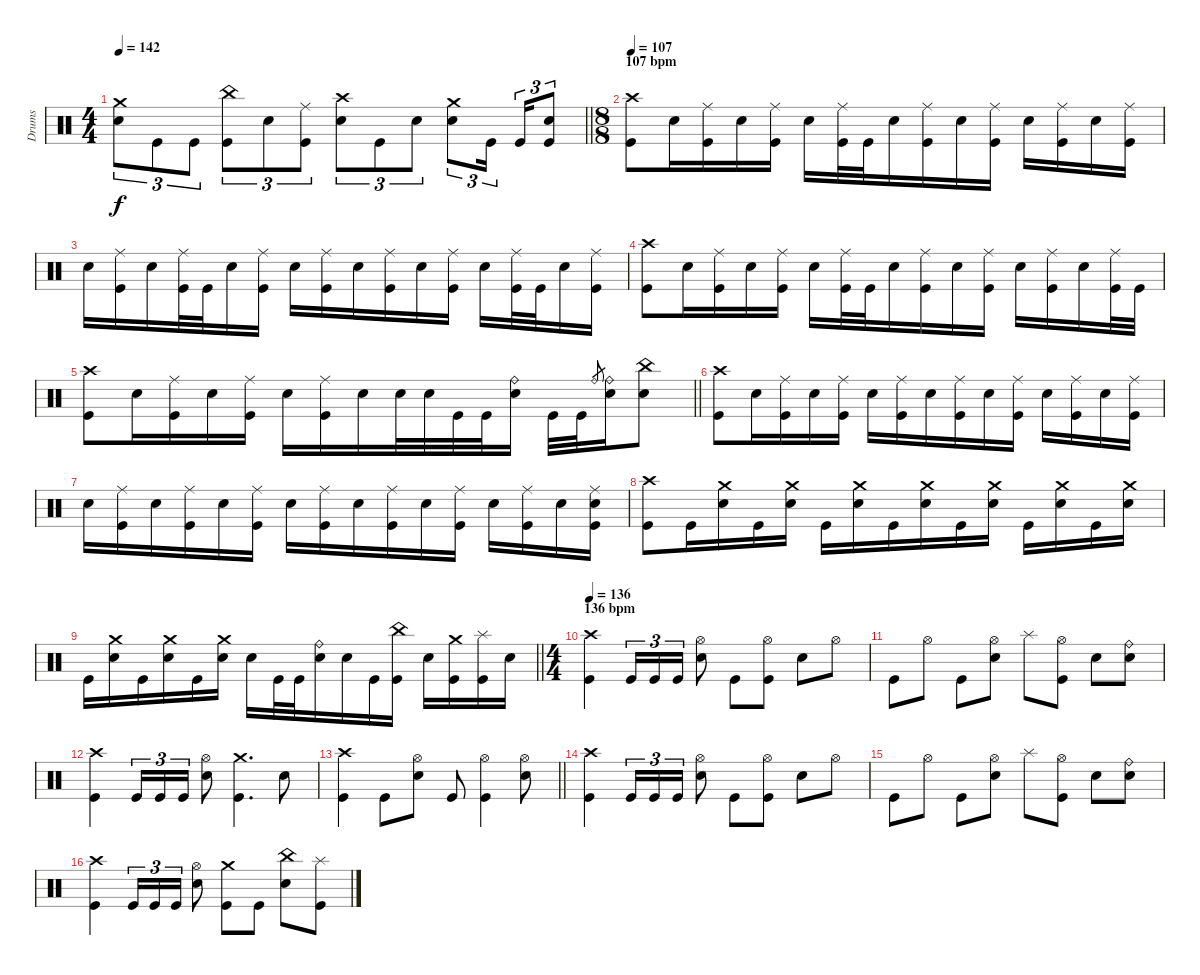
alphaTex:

\track ("Drums" "Drums") {instrument percussion}
\staff
\articulation defaults
\ts (4 4)
\tempo 142
\clef neutral
\barLineRight lightlight
\ks c
("Crash medium (hit)" "Electric Snare (hit)").8{tu (3 2) dy f} "Kick (hit)".8{tu (3 2)} "Kick (hit)".8{tu (3 2)} ("China (hit)" "Kick (hit)").8{tu (3 2)} "Electric Snare (hit)".8{tu (3 2)} ("Ride (middle)" "Kick (hit)").8{tu (3 2)} ("Crash high (hit)" "Electric Snare (hit)").8{tu (3 2)} "Kick (hit)".8{tu (3 2)} "Electric Snare (hit)".8{tu (3 2)} ("Crash medium (hit)" "Electric Snare (hit)").8{tu (3 2)} "Kick (hit)".16{tu (3 2) beam splitsecondary} "Kick (hit)".16{tu (3 2)} ("Electric Snare (hit)" "Kick (hit)").8{tu (3 2)} |
\ts (8 8)
\section ("" "107 bpm")
\tempo 107
("Crash high (hit)" "Kick (hit)").8 "Electric Snare (hit)".16 ("Ride (middle)" "Kick (hit)").16 "Electric Snare (hit)".16 ("Ride (middle)" "Kick (hit)").16 "Electric Snare (hit)".16 ("Ride (middle)" "Kick (hit)").32 "Kick (hit)".32 "Electric Snare (hit)".16 ("Ride (middle)" "Kick (hit)").16 "Electric Snare (hit)".16 ("Ride (middle)" "Kick (hit)").16 "Electric Snare (hit)".16 ("Ride (middle)" "Kick (hit)").16 "Electric Snare (hit)".16 ("Ride (middle)" "Kick (hit)").16 |
"Electric Snare (hit)".16 ("Ride (middle)" "Kick (hit)").16 "Electric Snare (hit)".16 ("Ride (middle)" "Kick (hit)").32 "Kick (hit)".32 "Electric Snare (hit)".16 ("Ride (middle)" "Kick (hit)").16 "Electric Snare (hit)".16 ("Ride (middle)" "Kick (hit)").16 "Electric Snare (hit)".16 ("Ride (middle)" "Kick (hit)").16 "Electric Snare (hit)".16 ("Ride (middle)" "Kick (hit)").16 "Electric Snare (hit)".16 ("Ride (middle)" "Kick (hit)").32 "Kick (hit)".32 "Electric Snare (hit)".16 ("Ride (middle)" "Kick (hit)").16 |
("Crash high (hit)" "Kick (hit)").8 "Electric Snare (hit)".16 ("Ride (middle)" "Kick (hit)").16 "Electric Snare (hit)".16 ("Ride (middle)" "Kick (hit)").16 "Electric Snare (hit)".16 ("Ride (middle)" "Kick (hit)").32 "Kick (hit)".32 "Electric Snare (hit)".16 ("Ride (middle)" "Kick (hit)").16 "Electric Snare (hit)".16 ("Ride (middle)" "Kick (hit)").16 "Electric Snare (hit)".16 ("Ride (middle)" "Kick (hit)").16 "Electric Snare (hit)".16 ("Ride (middle)" "Kick (hit)").32 "Kick (hit)".32 |
\barLineRight lightlight
("Crash high (hit)" "Kick (hit)").8 "Electric Snare (hit)".16 ("Ride (middle)" "Kick (hit)").16 "Electric Snare (hit)".16 ("Ride (middle)" "Kick (hit)").16 "Electric Snare (hit)".16 ("Ride (middle)" "Kick (hit)").16 "Electric Snare (hit)".16 "Electric Snare (hit)".32 "Electric Snare (hit)".32 "Kick (hit)".32 "Kick (hit)".32 ("Ride (bell)" "Electric Snare (hit)").16 "Kick (hit)".32 "Kick (hit)".32 "Ride (bell)".8{gr} ("Ride (bell)" "Electric Snare (hit)").16 ("China (hit)" "Electric Snare (hit)").8 |
("Crash high (hit)" "Kick (hit)").8 "Electric Snare (hit)".16 ("Ride (middle)" "Kick (hit)").16 "Electric Snare (hit)".16 ("Ride (middle)" "Kick (hit)").16 "Electric Snare (hit)".16 ("Ride (middle)" "Kick (hit)").16 "Electric Snare (hit)".16 ("Ride (middle)" "Kick (hit)").16 "Electric Snare (hit)".16 ("Ride (middle)" "Kick (hit)").16 "Electric Snare (hit)".16 ("Ride (middle)" "Kick (hit)").16 "Electric Snare (hit)".16 ("Ride (middle)" "Kick (hit)").16 |
"Electric Snare (hit)".16 ("Ride (middle)" "Kick (hit)").16 "Electric Snare (hit)".16 ("Ride (middle)" "Kick (hit)").16 "Electric Snare (hit)".16 ("Ride (middle)" "Kick (hit)").16 "Electric Snare (hit)".16 ("Ride (middle)" "Kick (hit)").16 "Electric Snare (hit)".16 ("Ride (middle)" "Kick (hit)").16 "Electric Snare (hit)".16 ("Ride (middle)" "Kick (hit)").16 "Electric Snare (hit)".16 ("Ride (middle)" "Kick (hit)").16 "Electric Snare (hit)".16 ("Ride (middle)" "Electric Snare (hit)" "Kick (hit)").16 |
("Crash high (hit)" "Kick (hit)").8 "Kick (hit)".16 ("Crash medium (hit)" "Electric Snare (hit)").16 "Kick (hit)".16 ("Crash medium (hit)" "Electric Snare (hit)").16 "Kick (hit)".16 ("Crash medium (hit)" "Electric Snare (hit)").16 "Kick (hit)".16 ("Crash medium (hit)" "Electric Snare (hit)").16 "Kick (hit)".16 ("Crash medium (hit)" "Electric Snare (hit)").16 "Kick (hit)".16 ("Crash medium (hit)" "Electric Snare (hit)").16 "Kick (hit)".16 ("Crash medium (hit)" "Electric Snare (hit)").16 |
\barLineRight lightlight "Kick (hit)".16
("Crash medium (hit)" "Electric Snare (hit)").16 "Kick (hit)".16 ("Crash medium (hit)" "Electric Snare (hit)").16 "Kick (hit)".16 ("Crash medium (hit)" "Electric Snare (hit)").16 "Electric Snare (hit)".16 "Kick (hit)".32 "Kick (hit)".32 ("Ride (bell)" "Electric Snare (hit)").16 "Electric Snare (hit)".16 "Kick (hit)".16 ("China (hit)" "Kick (hit)").16 "Electric Snare (hit)".16 ("Crash medium (hit)" "Kick (hit)").16 ("Splash (hit)" "Kick (hit)").16 "Electric Snare (hit)".16 |
\ts (4 4)
\section ("" "136 bpm")
\tempo 136
("Crash high (hit)" "Kick (hit)").4 "Kick (hit)".16{tu (3 2)} "Kick (hit)".16{tu (3 2)} "Kick (hit)".16{tu (3 2)} ("Hi-Hat (open)" "Electric Snare (hit)").8 "Kick (hit)".8 ("Hi-Hat (open)" "Kick (hit)").8 "Electric Snare (hit)".8 "Hi-Hat (open)".8 |
"Kick (hit)".8 "Hi-Hat (open)".8 "Kick (hit)".8 ("Hi-Hat (open)" "Electric Snare (hit)").8 "Splash (hit)".8 ("Hi-Hat (open)" "Kick (hit)").8 "Electric Snare (hit)".8 ("Ride (bell)" "Electric Snare (hit)").8 |
("Crash high (hit)" "Kick (hit)").4 "Kick (hit)".16{tu (3 2)} "Kick (hit)".16{tu (3 2)} "Kick (hit)".16{tu (3 2)} ("Hi-Hat (open)" "Electric Snare (hit)").8 ("Crash medium (hit)" "Kick (hit)").4{d} "Electric Snare (hit)".8 |
\barLineRight lightlight
("Crash high (hit)" "Kick (hit)").4 "Kick (hit)".8 ("Hi-Hat (open)" "Electric Snare (hit)").8 "Kick (hit)".8 ("Hi-Hat (open)" "Kick (hit)").4 ("Hi-Hat (open)" "Electric Snare (hit)").8 |
("Crash high (hit)" "Kick (hit)").4 "Kick (hit)".16{tu (3 2)} "Kick (hit)".16{tu (3 2)} "Kick (hit)".16{tu (3 2)} ("Hi-Hat (open)" "Electric Snare (hit)").8 "Kick (hit)".8 ("Hi-Hat (open)" "Kick (hit)").8 "Electric Snare (hit)".8 "Hi-Hat (open)".8 |
"Kick (hit)".8 "Hi-Hat (open)".8 "Kick (hit)".8 ("Hi-Hat (open)" "Electric Snare (hit)").8 "Splash (hit)".8 ("Hi-Hat (open)" "Kick (hit)").8 "Electric Snare (hit)".8 ("Ride (bell)" "Electric Snare (hit)").8 |
("Crash high (hit)" "Kick (hit)").4 "Kick (hit)".16{tu (3 2)} "Kick (hit)".16{tu (3 2)} "Kick (hit)".16{tu (3 2)} ("Hi-Hat (open)" "Electric Snare (hit)").8 ("Crash medium (hit)" "Kick (hit)").8 "Kick (hit)".8 ("China (hit)" "Electric Snare (hit)").8 ("Splash (hit)" "Kick (hit)").8
